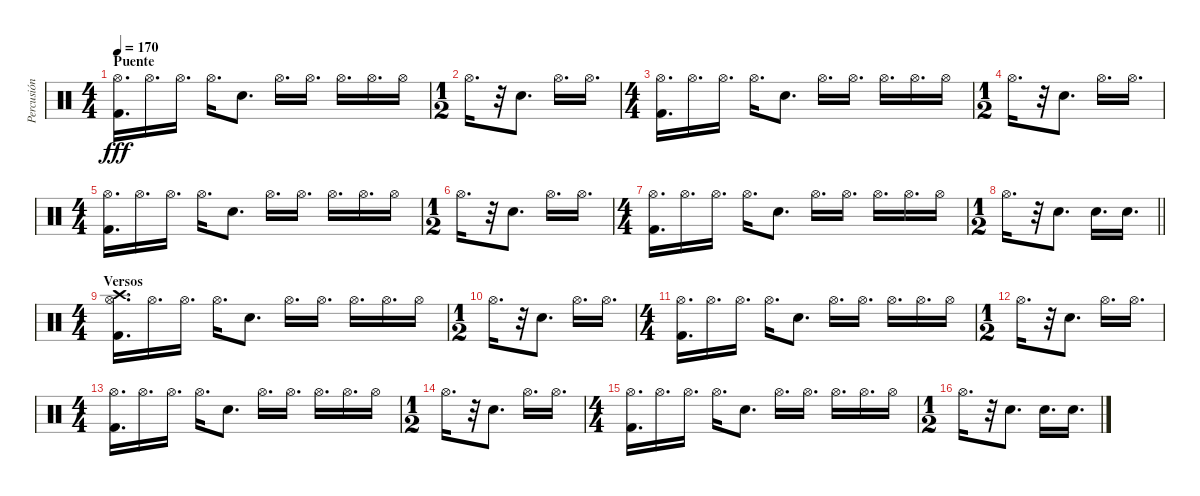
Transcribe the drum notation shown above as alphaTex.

\track ("Percusión" "Percusión") {instrument percussion}
\staff {score}
\articulation defaults
\ts (4 4)
\section ("" "Puente")
\tempo 170
\clef neutral
\ks c
("Hi-Hat (open)" "Kick (hit) 2").16{d dy fff} "Hi-Hat (open)".16{d} "Hi-Hat (open)".16{d} "Hi-Hat (open)".16{d} "Electric Snare (hit)".8{d} "Hi-Hat (open)".16{d} "Hi-Hat (open)".16{d} "Hi-Hat (open)".16{d} "Hi-Hat (open)".16{d} "Hi-Hat (open)".16 |
\ts (1 2)
"Hi-Hat (open)".16{d} r.32 "Electric Snare (hit)".8{d} "Hi-Hat (open)".16{d} "Hi-Hat (open)".16{d} |
\ts (4 4)
("Hi-Hat (open)" "Kick (hit) 2").16{d} "Hi-Hat (open)".16{d} "Hi-Hat (open)".16{d} "Hi-Hat (open)".16{d} "Electric Snare (hit)".8{d} "Hi-Hat (open)".16{d} "Hi-Hat (open)".16{d} "Hi-Hat (open)".16{d} "Hi-Hat (open)".16{d} "Hi-Hat (open)".16 |
\ts (1 2)
"Hi-Hat (open)".16{d} r.32 "Electric Snare (hit)".8{d} "Hi-Hat (open)".16{d} "Hi-Hat (open)".16{d} |
\ts (4 4)
("Hi-Hat (open)" "Kick (hit) 2").16{d} "Hi-Hat (open)".16{d} "Hi-Hat (open)".16{d} "Hi-Hat (open)".16{d} "Electric Snare (hit)".8{d} "Hi-Hat (open)".16{d} "Hi-Hat (open)".16{d} "Hi-Hat (open)".16{d} "Hi-Hat (open)".16{d} "Hi-Hat (open)".16 |
\ts (1 2)
"Hi-Hat (open)".16{d} r.32 "Electric Snare (hit)".8{d} "Hi-Hat (open)".16{d} "Hi-Hat (open)".16{d} |
\ts (4 4)
("Hi-Hat (open)" "Kick (hit) 2").16{d} "Hi-Hat (open)".16{d} "Hi-Hat (open)".16{d} "Hi-Hat (open)".16{d} "Electric Snare (hit)".8{d} "Hi-Hat (open)".16{d} "Hi-Hat (open)".16{d} "Hi-Hat (open)".16{d} "Hi-Hat (open)".16{d} "Hi-Hat (open)".16 |
\ts (1 2)
\barLineRight lightlight "Hi-Hat (open)".16{d}
r.32 "Electric Snare (hit)".8{d} "Electric Snare (hit)".16{d} "Electric Snare (hit)".16{d} |
\ts (4 4)
\section ("" "Versos")
("Crash high (hit)" "Hi-Hat (open)" "Kick (hit) 2").16{d} "Hi-Hat (open)".16{d} "Hi-Hat (open)".16{d} "Hi-Hat (open)".16{d} "Electric Snare (hit)".8{d} "Hi-Hat (open)".16{d} "Hi-Hat (open)".16{d} "Hi-Hat (open)".16{d} "Hi-Hat (open)".16{d} "Hi-Hat (open)".16 |
\ts (1 2)
"Hi-Hat (open)".16{d} r.32 "Electric Snare (hit)".8{d} "Hi-Hat (open)".16{d} "Hi-Hat (open)".16{d} |
\ts (4 4)
("Hi-Hat (open)" "Kick (hit) 2").16{d} "Hi-Hat (open)".16{d} "Hi-Hat (open)".16{d} "Hi-Hat (open)".16{d} "Electric Snare (hit)".8{d} "Hi-Hat (open)".16{d} "Hi-Hat (open)".16{d} "Hi-Hat (open)".16{d} "Hi-Hat (open)".16{d} "Hi-Hat (open)".16 |
\ts (1 2)
"Hi-Hat (open)".16{d} r.32 "Electric Snare (hit)".8{d} "Hi-Hat (open)".16{d} "Hi-Hat (open)".16{d} |
\ts (4 4)
("Hi-Hat (open)" "Kick (hit) 2").16{d} "Hi-Hat (open)".16{d} "Hi-Hat (open)".16{d} "Hi-Hat (open)".16{d} "Electric Snare (hit)".8{d} "Hi-Hat (open)".16{d} "Hi-Hat (open)".16{d} "Hi-Hat (open)".16{d} "Hi-Hat (open)".16{d} "Hi-Hat (open)".16 |
\ts (1 2)
"Hi-Hat (open)".16{d} r.32 "Electric Snare (hit)".8{d} "Hi-Hat (open)".16{d} "Hi-Hat (open)".16{d} |
\ts (4 4)
("Hi-Hat (open)" "Kick (hit) 2").16{d} "Hi-Hat (open)".16{d} "Hi-Hat (open)".16{d} "Hi-Hat (open)".16{d} "Electric Snare (hit)".8{d} "Hi-Hat (open)".16{d} "Hi-Hat (open)".16{d} "Hi-Hat (open)".16{d} "Hi-Hat (open)".16{d} "Hi-Hat (open)".16 |
\ts (1 2)
"Hi-Hat (open)".16{d} r.32 "Electric Snare (hit)".8{d} "Electric Snare (hit)".16{d} "Electric Snare (hit)".16{d}
